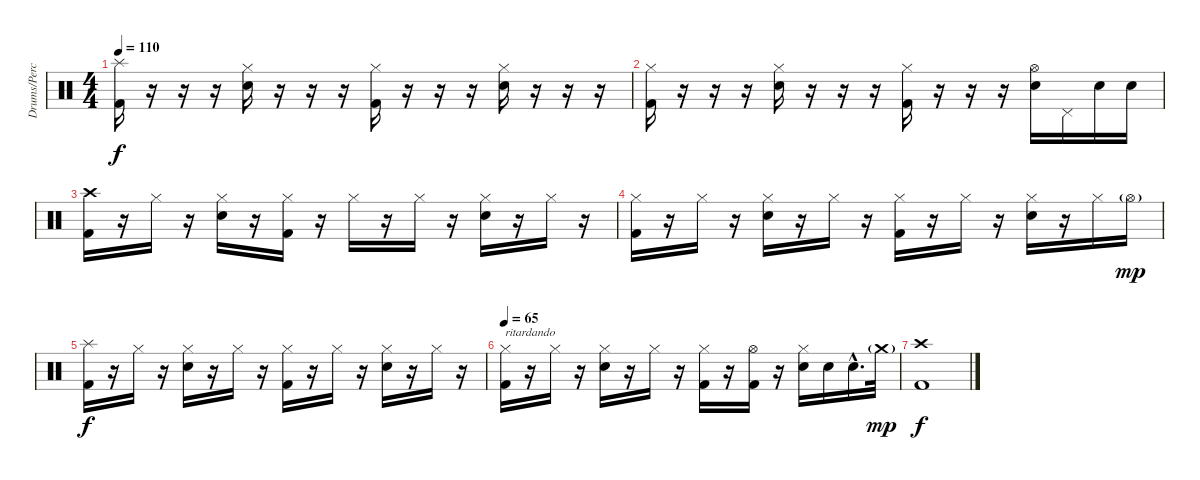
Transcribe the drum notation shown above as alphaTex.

\track ("Drums/Percussions" "Drums/Perc") {instrument percussion}
\staff {score}
\articulation defaults
\ts (4 4)
\tempo 110
\clef neutral
\ks c
("Splash (hit)" "Kick (hit) 2").16{dy f} r.16 r.16 r.16 ("Hi-Hat (closed)" "Snare (hit) 2").16 r.16 r.16 r.16 ("Hi-Hat (closed)" "Kick (hit) 2").16 r.16 r.16 r.16 ("Hi-Hat (closed)" "Snare (hit) 2").16 r.16 r.16 r.16 |
("Hi-Hat (closed)" "Kick (hit) 2").16 r.16 r.16 r.16 ("Hi-Hat (closed)" "Snare (hit) 2").16 r.16 r.16 r.16 ("Hi-Hat (closed)" "Kick (hit) 2").16 r.16 r.16 r.16 ("Hi-Hat (open)" "Snare (hit) 2").16 "Pedal Hi-Hat (hit)".16 "Snare (hit) 2".16 "Snare (hit) 2".16 |
("Crash high (hit)" "Kick (hit) 2").16 r.16 "Hi-Hat (closed)".16 r.16 ("Hi-Hat (closed)" "Snare (hit) 2").16 r.16 ("Hi-Hat (closed)" "Kick (hit) 2").16 r.16 "Hi-Hat (closed)".16 r.16 "Hi-Hat (closed)".16 r.16 ("Hi-Hat (closed)" "Snare (hit) 2").16 r.16 "Hi-Hat (closed)".16 r.16 |
("Hi-Hat (closed)" "Kick (hit) 2").16 r.16 "Hi-Hat (closed)".16 r.16 ("Hi-Hat (closed)" "Snare (hit) 2").16 r.16 "Hi-Hat (closed)".16 r.16 ("Hi-Hat (closed)" "Kick (hit) 2").16 r.16 "Hi-Hat (closed)".16 r.16 ("Hi-Hat (closed)" "Snare (hit) 2").16 r.16 "Hi-Hat (closed)".16 "Hi-Hat (open)"{g}.16{dy mp} |
("Splash (hit)" "Kick (hit) 2").16{dy f} r.16 "Hi-Hat (closed)".16 r.16 ("Hi-Hat (closed)" "Snare (hit) 2").16 r.16 "Hi-Hat (closed)".16 r.16 ("Hi-Hat (closed)" "Kick (hit) 2").16 r.16 "Hi-Hat (closed)".16 r.16 ("Hi-Hat (closed)" "Snare (hit) 2").16 r.16 "Hi-Hat (closed)".16 r.16 |
\tempo 65
("Hi-Hat (closed)" "Kick (hit) 2").16{txt "ritardando"} r.16 "Hi-Hat (closed)".16 r.16 ("Hi-Hat (closed)" "Snare (hit) 2").16 r.16 "Hi-Hat (closed)".16 r.16 ("Hi-Hat (closed)" "Kick (hit) 2").16 r.16 ("Hi-Hat (open)" "Kick (hit) 2").16 r.16 ("Hi-Hat (closed)" "Snare (hit) 2").16 "Snare (hit) 2".16 "Snare (hit) 2"{hac}.16{d} "Crash medium (hit)"{g}.32{dy mp} |
("Crash high (hit)" "Kick (hit) 2").1{dy f}
